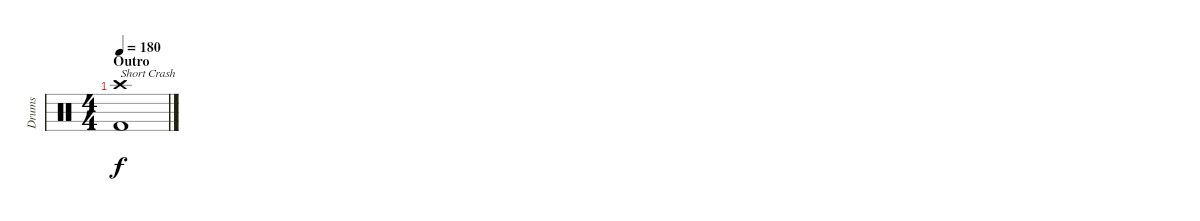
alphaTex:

\track ("Drums" "Drums") {instrument percussion}
\staff {score}
\articulation defaults
\ts (4 4)
\section ("" "Outro")
\tempo 180
\clef neutral
\ks c
("Crash high (hit)" "Kick (hit) 2").1{txt "Short Crash" dy f volume 0}
